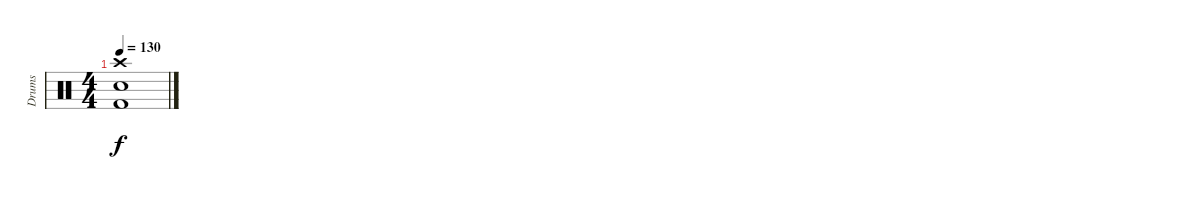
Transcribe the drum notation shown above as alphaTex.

\track ("Drums" "Drums") {instrument percussion}
\staff {score}
\articulation defaults
\ts (4 4)
\tempo 130
\clef neutral
\ks c
("Crash high (hit)" "Snare (hit) 2" "Kick (hit) 2").1{dy f}
